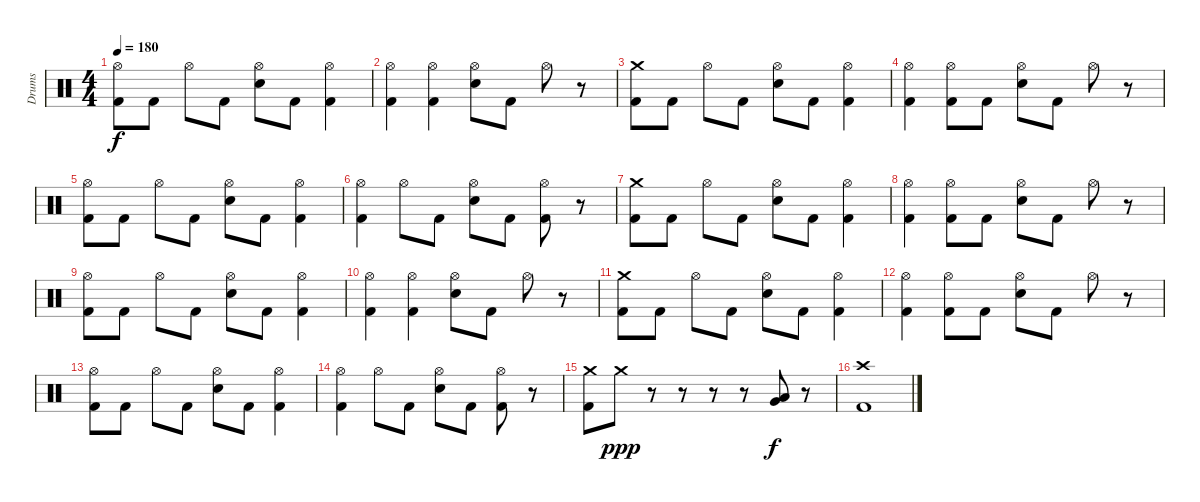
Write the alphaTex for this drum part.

\track ("Drums" "Drums") {instrument percussion}
\staff
\articulation defaults
\ts (4 4)
\tempo 180
\clef neutral
\ks c
("Hi-Hat (open)" "Kick (hit) 2").8{dy f} "Kick (hit) 2".8 "Hi-Hat (open)".8 "Kick (hit) 2".8 ("Hi-Hat (open)" "Electric Snare (hit)").8 "Kick (hit) 2".8 ("Hi-Hat (open)" "Kick (hit) 2").4 |
("Hi-Hat (open)" "Kick (hit) 2").4 ("Hi-Hat (open)" "Kick (hit) 2").4 ("Hi-Hat (open)" "Electric Snare (hit)").8 "Kick (hit) 2".8 "Hi-Hat (open)".8 r.8 |
("Crash medium (hit)" "Kick (hit) 2").8 "Kick (hit) 2".8 "Hi-Hat (open)".8 "Kick (hit) 2".8 ("Hi-Hat (open)" "Electric Snare (hit)").8 "Kick (hit) 2".8 ("Hi-Hat (open)" "Kick (hit) 2").4 |
("Hi-Hat (open)" "Kick (hit) 2").4 ("Hi-Hat (open)" "Kick (hit) 2").8 "Kick (hit) 2".8 ("Hi-Hat (open)" "Electric Snare (hit)").8 "Kick (hit) 2".8 "Hi-Hat (open)".8 r.8 |
("Hi-Hat (open)" "Kick (hit) 2").8 "Kick (hit) 2".8 "Hi-Hat (open)".8 "Kick (hit) 2".8 ("Hi-Hat (open)" "Electric Snare (hit)").8 "Kick (hit) 2".8 ("Hi-Hat (open)" "Kick (hit) 2").4 |
("Hi-Hat (open)" "Kick (hit) 2").4 "Hi-Hat (open)".8 "Kick (hit) 2".8 ("Hi-Hat (open)" "Electric Snare (hit)").8 "Kick (hit) 2".8 ("Hi-Hat (open)" "Kick (hit) 2").8 r.8 |
("Crash medium (hit)" "Kick (hit) 2").8 "Kick (hit) 2".8 "Hi-Hat (open)".8 "Kick (hit) 2".8 ("Hi-Hat (open)" "Electric Snare (hit)").8 "Kick (hit) 2".8 ("Hi-Hat (open)" "Kick (hit) 2").4 |
("Hi-Hat (open)" "Kick (hit) 2").4 ("Hi-Hat (open)" "Kick (hit) 2").8 "Kick (hit) 2".8 ("Hi-Hat (open)" "Electric Snare (hit)").8 "Kick (hit) 2".8 "Hi-Hat (open)".8 r.8 |
("Hi-Hat (open)" "Kick (hit) 2").8 "Kick (hit) 2".8 "Hi-Hat (open)".8 "Kick (hit) 2".8 ("Hi-Hat (open)" "Electric Snare (hit)").8 "Kick (hit) 2".8 ("Hi-Hat (open)" "Kick (hit) 2").4 |
("Hi-Hat (open)" "Kick (hit) 2").4 ("Hi-Hat (open)" "Kick (hit) 2").4 ("Hi-Hat (open)" "Electric Snare (hit)").8 "Kick (hit) 2".8 "Hi-Hat (open)".8 r.8 |
("Crash medium (hit)" "Kick (hit) 2").8 "Kick (hit) 2".8 "Hi-Hat (open)".8 "Kick (hit) 2".8 ("Hi-Hat (open)" "Electric Snare (hit)").8 "Kick (hit) 2".8 ("Hi-Hat (open)" "Kick (hit) 2").4 |
("Hi-Hat (open)" "Kick (hit) 2").4 ("Hi-Hat (open)" "Kick (hit) 2").8 "Kick (hit) 2".8 ("Hi-Hat (open)" "Electric Snare (hit)").8 "Kick (hit) 2".8 "Hi-Hat (open)".8 r.8 |
("Hi-Hat (open)" "Kick (hit) 2").8 "Kick (hit) 2".8 "Hi-Hat (open)".8 "Kick (hit) 2".8 ("Hi-Hat (open)" "Electric Snare (hit)").8 "Kick (hit) 2".8 ("Hi-Hat (open)" "Kick (hit) 2").4 |
("Hi-Hat (open)" "Kick (hit) 2").4 "Hi-Hat (open)".8 "Kick (hit) 2".8 ("Hi-Hat (open)" "Electric Snare (hit)").8 "Kick (hit) 2".8 ("Hi-Hat (open)" "Kick (hit) 2").8 r.8 |
("Crash medium (hit)" "Kick (hit) 2").8 "Crash medium (hit)".8{dy ppp} r.8 r.8 r.8 r.8 ("Very Low Tom (hit)" "Low Floor Tom (hit)").8{dy f} r.8 |
("Crash high (hit)" "Kick (hit) 2").1
